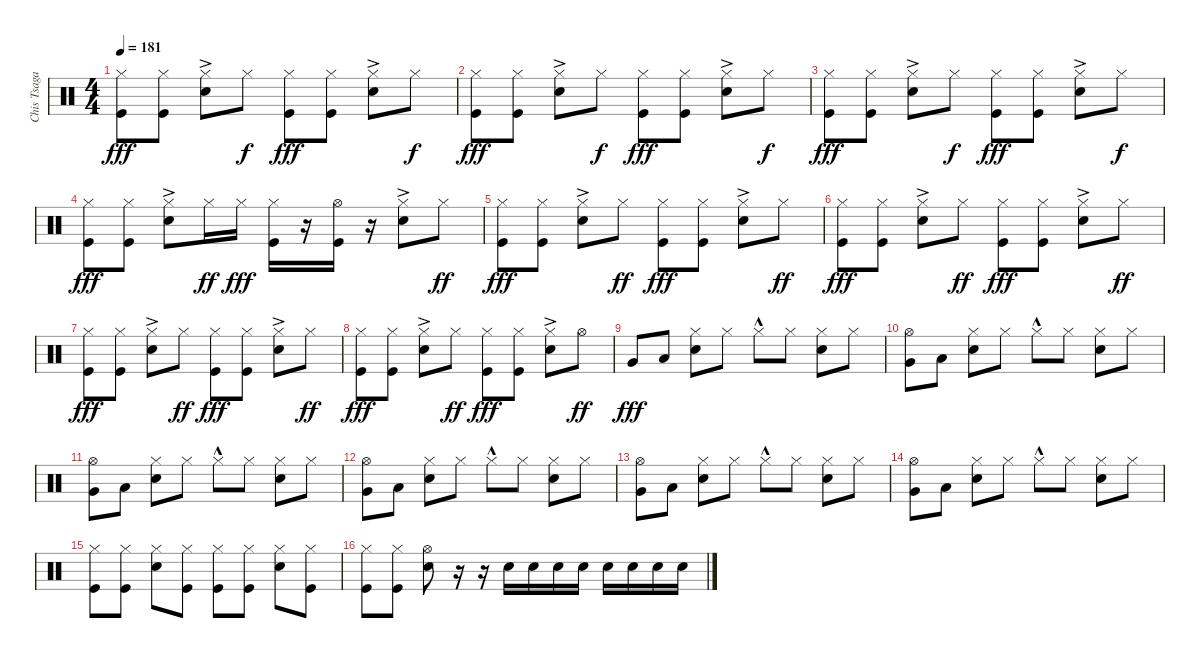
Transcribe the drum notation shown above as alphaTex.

\track ("Chis Tsagakis" "Chis Tsaga") {instrument percussion}
\staff {score}
\articulation defaults
\ts (4 4)
\tempo 181
\clef neutral
\ks c
("Hi-Hat (closed)" "Kick (hit)").8{dy fff} ("Hi-Hat (closed)" "Kick (hit)").8 ("Hi-Hat (closed)"{ac} "Electric Snare (hit)").8 "Hi-Hat (closed)".8{dy f} ("Hi-Hat (closed)" "Kick (hit)").8{dy fff} ("Hi-Hat (closed)" "Kick (hit)").8 ("Hi-Hat (closed)"{ac} "Electric Snare (hit)").8 "Hi-Hat (closed)".8{dy f} |
("Hi-Hat (closed)" "Kick (hit)").8{dy fff} ("Hi-Hat (closed)" "Kick (hit)").8 ("Hi-Hat (closed)"{ac} "Electric Snare (hit)").8 "Hi-Hat (closed)".8{dy f} ("Hi-Hat (closed)" "Kick (hit)").8{dy fff} ("Hi-Hat (closed)" "Kick (hit)").8 ("Hi-Hat (closed)"{ac} "Electric Snare (hit)").8 "Hi-Hat (closed)".8{dy f} |
("Hi-Hat (closed)" "Kick (hit)").8{dy fff} ("Hi-Hat (closed)" "Kick (hit)").8 ("Hi-Hat (closed)"{ac} "Electric Snare (hit)").8 "Hi-Hat (closed)".8{dy f} ("Hi-Hat (closed)" "Kick (hit)").8{dy fff} ("Hi-Hat (closed)" "Kick (hit)").8 ("Hi-Hat (closed)"{ac} "Electric Snare (hit)").8 "Hi-Hat (closed)".8{dy f} |
("Hi-Hat (closed)" "Kick (hit)").8{dy fff} ("Hi-Hat (closed)" "Kick (hit)").8 ("Hi-Hat (closed)"{ac} "Electric Snare (hit)").8 "Hi-Hat (closed)".16{dy ff} "Hi-Hat (closed)".16{dy fff} ("Hi-Hat (closed)" "Kick (hit)").16 r.16 ("Hi-Hat (open)" "Kick (hit)").16 r.16 ("Hi-Hat (closed)"{ac} "Electric Snare (hit)").8 "Hi-Hat (closed)".8{dy ff} |
("Hi-Hat (closed)" "Kick (hit)").8{dy fff} ("Hi-Hat (closed)" "Kick (hit)").8 ("Hi-Hat (closed)"{ac} "Electric Snare (hit)").8 "Hi-Hat (closed)".8{dy ff} ("Hi-Hat (closed)" "Kick (hit)").8{dy fff} ("Hi-Hat (closed)" "Kick (hit)").8 ("Hi-Hat (closed)"{ac} "Electric Snare (hit)").8 "Hi-Hat (closed)".8{dy ff} |
("Hi-Hat (closed)" "Kick (hit)").8{dy fff} ("Hi-Hat (closed)" "Kick (hit)").8 ("Hi-Hat (closed)"{ac} "Electric Snare (hit)").8 "Hi-Hat (closed)".8{dy ff} ("Hi-Hat (closed)" "Kick (hit)").8{dy fff} ("Hi-Hat (closed)" "Kick (hit)").8 ("Hi-Hat (closed)"{ac} "Electric Snare (hit)").8 "Hi-Hat (closed)".8{dy ff} |
("Hi-Hat (closed)" "Kick (hit)").8{dy fff} ("Hi-Hat (closed)" "Kick (hit)").8 ("Hi-Hat (closed)"{ac} "Electric Snare (hit)").8 "Hi-Hat (closed)".8{dy ff} ("Hi-Hat (closed)" "Kick (hit)").8{dy fff} ("Hi-Hat (closed)" "Kick (hit)").8 ("Hi-Hat (closed)"{ac} "Electric Snare (hit)").8 "Hi-Hat (closed)".8{dy ff} |
("Hi-Hat (closed)" "Kick (hit)").8{dy fff} ("Hi-Hat (closed)" "Kick (hit)").8 ("Hi-Hat (closed)"{ac} "Electric Snare (hit)").8 "Hi-Hat (closed)".8{dy ff} ("Hi-Hat (closed)" "Kick (hit)").8{dy fff} ("Hi-Hat (closed)" "Kick (hit)").8 ("Hi-Hat (closed)"{ac} "Electric Snare (hit)").8 "Hi-Hat (open)".8{dy ff} |
"Very Low Tom (hit)".8{dy fff} "Low Floor Tom (hit)".8 ("Hi-Hat (closed)" "Electric Snare (hit)").8 "Hi-Hat (closed)".8 "Hi-Hat (closed)"{hac}.8 "Hi-Hat (closed)".8 ("Hi-Hat (closed)" "Electric Snare (hit)").8 "Hi-Hat (closed)".8 |
("Hi-Hat (open)" "Very Low Tom (hit)").8 "Low Floor Tom (hit)".8 ("Hi-Hat (closed)" "Electric Snare (hit)").8 "Hi-Hat (closed)".8 "Hi-Hat (closed)"{hac}.8 "Hi-Hat (closed)".8 ("Hi-Hat (closed)" "Electric Snare (hit)").8 "Hi-Hat (closed)".8 |
("Hi-Hat (open)" "Very Low Tom (hit)").8 "Low Floor Tom (hit)".8 ("Hi-Hat (closed)" "Electric Snare (hit)").8 "Hi-Hat (closed)".8 "Hi-Hat (closed)"{hac}.8 "Hi-Hat (closed)".8 ("Hi-Hat (closed)" "Electric Snare (hit)").8 "Hi-Hat (closed)".8 |
("Hi-Hat (open)" "Very Low Tom (hit)").8 "Low Floor Tom (hit)".8 ("Hi-Hat (closed)" "Electric Snare (hit)").8 "Hi-Hat (closed)".8 "Hi-Hat (closed)"{hac}.8 "Hi-Hat (closed)".8 ("Hi-Hat (closed)" "Electric Snare (hit)").8 "Hi-Hat (closed)".8 |
("Hi-Hat (open)" "Very Low Tom (hit)").8 "Low Floor Tom (hit)".8 ("Hi-Hat (closed)" "Electric Snare (hit)").8 "Hi-Hat (closed)".8 "Hi-Hat (closed)"{hac}.8 "Hi-Hat (closed)".8 ("Hi-Hat (closed)" "Electric Snare (hit)").8 "Hi-Hat (closed)".8 |
("Hi-Hat (open)" "Very Low Tom (hit)").8 "Low Floor Tom (hit)".8 ("Hi-Hat (closed)" "Electric Snare (hit)").8 "Hi-Hat (closed)".8 "Hi-Hat (closed)"{hac}.8 "Hi-Hat (closed)".8 ("Hi-Hat (closed)" "Electric Snare (hit)").8 "Hi-Hat (closed)".8 |
("Hi-Hat (closed)" "Kick (hit)").8 ("Hi-Hat (closed)" "Kick (hit)").8 ("Hi-Hat (closed)" "Electric Snare (hit)").8 ("Hi-Hat (closed)" "Kick (hit)").8 ("Hi-Hat (closed)" "Kick (hit)").8 ("Hi-Hat (closed)" "Kick (hit)").8 ("Hi-Hat (closed)" "Electric Snare (hit)").8 ("Hi-Hat (closed)" "Kick (hit)").8 |
("Hi-Hat (closed)" "Kick (hit)").8 ("Hi-Hat (closed)" "Kick (hit)").8 ("Hi-Hat (open)" "Electric Snare (hit)").8 r.16 r.16 "Electric Snare (hit)".16 "Electric Snare (hit)".16 "Electric Snare (hit)".16 "Electric Snare (hit)".16 "Electric Snare (hit)".16 "Electric Snare (hit)".16 "Electric Snare (hit)".16 "Electric Snare (hit)".16
